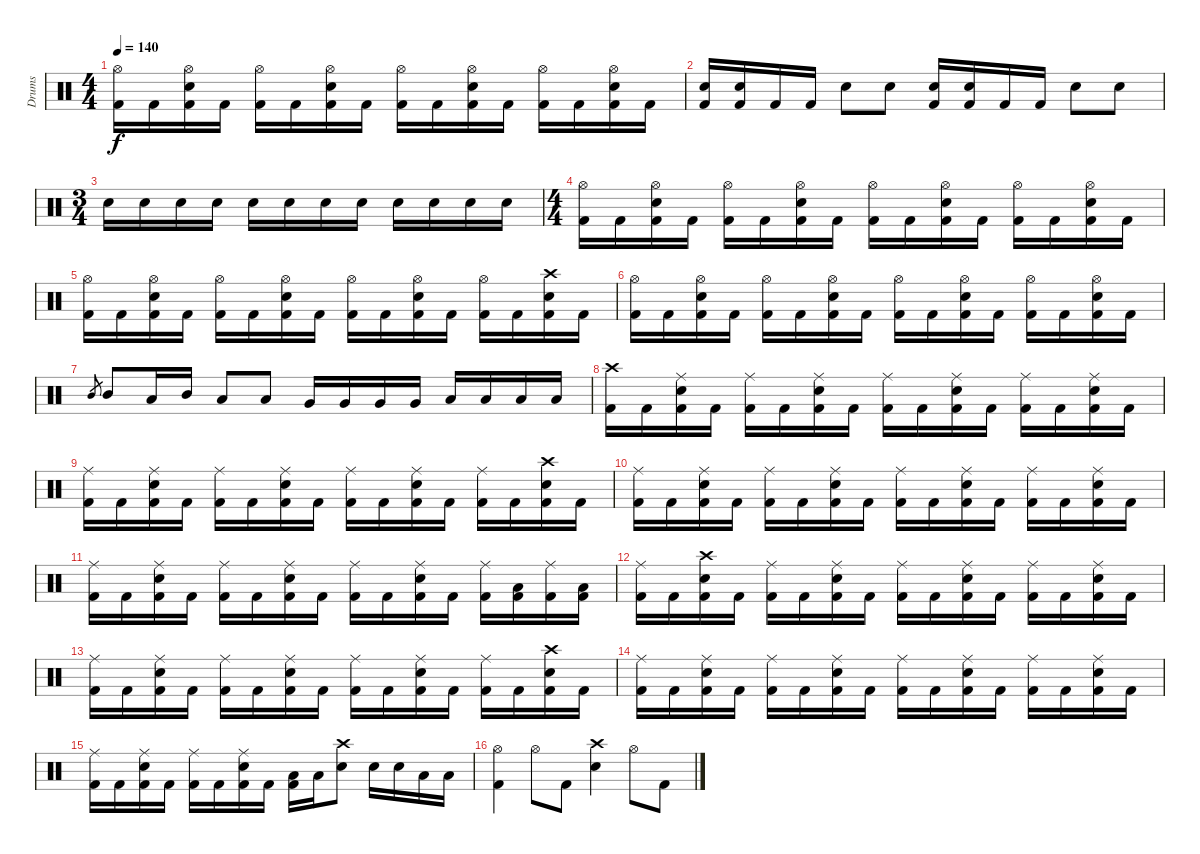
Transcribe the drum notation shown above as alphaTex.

\track ("Drums" "Drums") {instrument percussion}
\staff {score}
\articulation defaults
\ts (4 4)
\tempo 140
\clef neutral
\ks c
("Hi-Hat (open)" "Kick (hit) 2").16{dy f} "Kick (hit) 2".16 ("Hi-Hat (open)" "Electric Snare (hit)" "Kick (hit) 2").16 "Kick (hit) 2".16 ("Hi-Hat (open)" "Kick (hit) 2").16 "Kick (hit) 2".16 ("Hi-Hat (open)" "Electric Snare (hit)" "Kick (hit) 2").16 "Kick (hit) 2".16 ("Hi-Hat (open)" "Kick (hit) 2").16 "Kick (hit) 2".16 ("Hi-Hat (open)" "Electric Snare (hit)" "Kick (hit) 2").16 "Kick (hit) 2".16 ("Hi-Hat (open)" "Kick (hit) 2").16 "Kick (hit) 2".16 ("Hi-Hat (open)" "Electric Snare (hit)" "Kick (hit) 2").16 "Kick (hit) 2".16 |
("Electric Snare (hit)" "Kick (hit) 2").16 ("Electric Snare (hit)" "Kick (hit) 2").16 "Kick (hit) 2".16 "Kick (hit) 2".16 "Electric Snare (hit)".8 "Electric Snare (hit)".8 ("Electric Snare (hit)" "Kick (hit) 2").16 ("Electric Snare (hit)" "Kick (hit) 2").16 "Kick (hit) 2".16 "Kick (hit) 2".16 "Electric Snare (hit)".8 "Electric Snare (hit)".8 |
\ts (3 4)
"Electric Snare (hit)".16 "Electric Snare (hit)".16 "Electric Snare (hit)".16 "Electric Snare (hit)".16 "Electric Snare (hit)".16 "Electric Snare (hit)".16 "Electric Snare (hit)".16 "Electric Snare (hit)".16 "Electric Snare (hit)".16 "Electric Snare (hit)".16 "Electric Snare (hit)".16 "Electric Snare (hit)".16 |
\ts (4 4)
("Hi-Hat (open)" "Kick (hit) 2").16 "Kick (hit) 2".16 ("Hi-Hat (open)" "Electric Snare (hit)" "Kick (hit) 2").16 "Kick (hit) 2".16 ("Hi-Hat (open)" "Kick (hit) 2").16 "Kick (hit) 2".16 ("Hi-Hat (open)" "Electric Snare (hit)" "Kick (hit) 2").16 "Kick (hit) 2".16 ("Hi-Hat (open)" "Kick (hit) 2").16 "Kick (hit) 2".16 ("Hi-Hat (open)" "Electric Snare (hit)" "Kick (hit) 2").16 "Kick (hit) 2".16 ("Hi-Hat (open)" "Kick (hit) 2").16 "Kick (hit) 2".16 ("Hi-Hat (open)" "Electric Snare (hit)" "Kick (hit) 2").16 "Kick (hit) 2".16 |
("Hi-Hat (open)" "Kick (hit) 2").16 "Kick (hit) 2".16 ("Hi-Hat (open)" "Electric Snare (hit)" "Kick (hit) 2").16 "Kick (hit) 2".16 ("Hi-Hat (open)" "Kick (hit) 2").16 "Kick (hit) 2".16 ("Hi-Hat (open)" "Electric Snare (hit)" "Kick (hit) 2").16 "Kick (hit) 2".16 ("Hi-Hat (open)" "Kick (hit) 2").16 "Kick (hit) 2".16 ("Hi-Hat (open)" "Electric Snare (hit)" "Kick (hit) 2").16 "Kick (hit) 2".16 ("Hi-Hat (open)" "Kick (hit) 2").16 "Kick (hit) 2".16 ("Crash high (hit)" "Electric Snare (hit)" "Kick (hit) 2").16 "Kick (hit) 2".16 |
("Hi-Hat (open)" "Kick (hit) 2").16 "Kick (hit) 2".16 ("Hi-Hat (open)" "Electric Snare (hit)" "Kick (hit) 2").16 "Kick (hit) 2".16 ("Hi-Hat (open)" "Kick (hit) 2").16 "Kick (hit) 2".16 ("Hi-Hat (open)" "Electric Snare (hit)" "Kick (hit) 2").16 "Kick (hit) 2".16 ("Hi-Hat (open)" "Kick (hit) 2").16 "Kick (hit) 2".16 ("Hi-Hat (open)" "Electric Snare (hit)" "Kick (hit) 2").16 "Kick (hit) 2".16 ("Hi-Hat (open)" "Kick (hit) 2").16 "Kick (hit) 2".16 ("Hi-Hat (open)" "Electric Snare (hit)" "Kick (hit) 2").16 "Kick (hit) 2".16 |
"Mid Tom (hit)".8{gr} "Mid Tom (hit)".8 "Low Tom (hit)".16 "Mid Tom (hit)".16 "Low Tom (hit)".8 "Low Tom (hit)".8 "Very Low Tom (hit)".16 "Very Low Tom (hit)".16 "Very Low Tom (hit)".16 "Very Low Tom (hit)".16 "Low Floor Tom (hit)".16 "Low Floor Tom (hit)".16 "Low Floor Tom (hit)".16 "Low Floor Tom (hit)".16 |
("Crash high (hit)" "Kick (hit) 2").16 "Kick (hit) 2".16 ("Ride (middle)" "Electric Snare (hit)" "Kick (hit) 2").16 "Kick (hit) 2".16 ("Ride (middle)" "Kick (hit) 2").16 "Kick (hit) 2".16 ("Ride (middle)" "Electric Snare (hit)" "Kick (hit) 2").16 "Kick (hit) 2".16 ("Ride (middle)" "Kick (hit) 2").16 "Kick (hit) 2".16 ("Ride (middle)" "Electric Snare (hit)" "Kick (hit) 2").16 "Kick (hit) 2".16 ("Ride (middle)" "Kick (hit) 2").16 "Kick (hit) 2".16 ("Ride (middle)" "Electric Snare (hit)" "Kick (hit) 2").16 "Kick (hit) 2".16 |
("Ride (middle)" "Kick (hit) 2").16 "Kick (hit) 2".16 ("Ride (middle)" "Electric Snare (hit)" "Kick (hit) 2").16 "Kick (hit) 2".16 ("Ride (middle)" "Kick (hit) 2").16 "Kick (hit) 2".16 ("Ride (middle)" "Electric Snare (hit)" "Kick (hit) 2").16 "Kick (hit) 2".16 ("Ride (middle)" "Kick (hit) 2").16 "Kick (hit) 2".16 ("Ride (middle)" "Electric Snare (hit)" "Kick (hit) 2").16 "Kick (hit) 2".16 ("Ride (middle)" "Kick (hit) 2").16 "Kick (hit) 2".16 ("Crash high (hit)" "Electric Snare (hit)" "Kick (hit) 2").16 "Kick (hit) 2".16 |
("Ride (middle)" "Kick (hit) 2").16 "Kick (hit) 2".16 ("Ride (middle)" "Electric Snare (hit)" "Kick (hit) 2").16 "Kick (hit) 2".16 ("Ride (middle)" "Kick (hit) 2").16 "Kick (hit) 2".16 ("Ride (middle)" "Electric Snare (hit)" "Kick (hit) 2").16 "Kick (hit) 2".16 ("Ride (middle)" "Kick (hit) 2").16 "Kick (hit) 2".16 ("Ride (middle)" "Electric Snare (hit)" "Kick (hit) 2").16 "Kick (hit) 2".16 ("Ride (middle)" "Kick (hit) 2").16 "Kick (hit) 2".16 ("Ride (middle)" "Electric Snare (hit)" "Kick (hit) 2").16 "Kick (hit) 2".16 |
("Ride (middle)" "Kick (hit) 2").16 "Kick (hit) 2".16 ("Ride (middle)" "Electric Snare (hit)" "Kick (hit) 2").16 "Kick (hit) 2".16 ("Ride (middle)" "Kick (hit) 2").16 "Kick (hit) 2".16 ("Ride (middle)" "Electric Snare (hit)" "Kick (hit) 2").16 "Kick (hit) 2".16 ("Ride (middle)" "Kick (hit) 2").16 "Kick (hit) 2".16 ("Ride (middle)" "Electric Snare (hit)" "Kick (hit) 2").16 "Kick (hit) 2".16 ("Ride (middle)" "Kick (hit) 2").16 ("Low Tom (hit)" "Kick (hit) 2").16 ("Ride (middle)" "Kick (hit) 2").16 ("Low Tom (hit)" "Kick (hit) 2").16 |
("Ride (middle)" "Kick (hit) 2").16 "Kick (hit) 2".16 ("Crash high (hit)" "Electric Snare (hit)" "Kick (hit) 2").16 "Kick (hit) 2".16 ("Ride (middle)" "Kick (hit) 2").16 "Kick (hit) 2".16 ("Ride (middle)" "Electric Snare (hit)" "Kick (hit) 2").16 "Kick (hit) 2".16 ("Ride (middle)" "Kick (hit) 2").16 "Kick (hit) 2".16 ("Ride (middle)" "Electric Snare (hit)" "Kick (hit) 2").16 "Kick (hit) 2".16 ("Ride (middle)" "Kick (hit) 2").16 "Kick (hit) 2".16 ("Ride (middle)" "Electric Snare (hit)" "Kick (hit) 2").16 "Kick (hit) 2".16 |
("Ride (middle)" "Kick (hit) 2").16 "Kick (hit) 2".16 ("Ride (middle)" "Electric Snare (hit)" "Kick (hit) 2").16 "Kick (hit) 2".16 ("Ride (middle)" "Kick (hit) 2").16 "Kick (hit) 2".16 ("Ride (middle)" "Electric Snare (hit)" "Kick (hit) 2").16 "Kick (hit) 2".16 ("Ride (middle)" "Kick (hit) 2").16 "Kick (hit) 2".16 ("Ride (middle)" "Electric Snare (hit)" "Kick (hit) 2").16 "Kick (hit) 2".16 ("Ride (middle)" "Kick (hit) 2").16 "Kick (hit) 2".16 ("Crash high (hit)" "Electric Snare (hit)" "Kick (hit) 2").16 "Kick (hit) 2".16 |
("Ride (middle)" "Kick (hit) 2").16 "Kick (hit) 2".16 ("Ride (middle)" "Electric Snare (hit)" "Kick (hit) 2").16 "Kick (hit) 2".16 ("Ride (middle)" "Kick (hit) 2").16 "Kick (hit) 2".16 ("Ride (middle)" "Electric Snare (hit)" "Kick (hit) 2").16 "Kick (hit) 2".16 ("Ride (middle)" "Kick (hit) 2").16 "Kick (hit) 2".16 ("Ride (middle)" "Electric Snare (hit)" "Kick (hit) 2").16 "Kick (hit) 2".16 ("Ride (middle)" "Kick (hit) 2").16 "Kick (hit) 2".16 ("Ride (middle)" "Electric Snare (hit)" "Kick (hit) 2").16 "Kick (hit) 2".16 |
("Ride (middle)" "Kick (hit) 2").16 "Kick (hit) 2".16 ("Ride (middle)" "Electric Snare (hit)" "Kick (hit) 2").16 "Kick (hit) 2".16 ("Ride (middle)" "Kick (hit) 2").16 "Kick (hit) 2".16 ("Ride (middle)" "Electric Snare (hit)" "Kick (hit) 2").16 "Kick (hit) 2".16 ("Low Tom (hit)" "Kick (hit) 2").16 "Low Tom (hit)".16 ("Crash high (hit)" "Electric Snare (hit)").8 "Electric Snare (hit)".16 "Electric Snare (hit)".16 "Low Tom (hit)".16 "Low Tom (hit)".16 |
("Hi-Hat (open)" "Kick (hit) 2").4 "Hi-Hat (open)".8 "Kick (hit) 2".8 ("Crash high (hit)" "Electric Snare (hit)").4 "Hi-Hat (open)".8 "Kick (hit) 2".8
